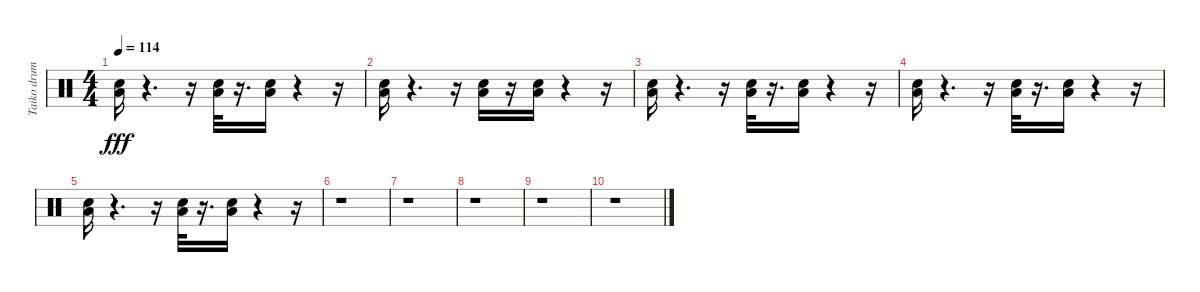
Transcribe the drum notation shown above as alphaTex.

\track ("Taiko drum" "Taiko drum") {instrument percussion}
\staff {score}
\articulation defaults
\ts (4 4)
\tempo 114
\clef neutral
\ks c
("Low Floor Tom (hit)" "Electric Snare (hit)").16{dy fff} r.4{d} r.16 ("Low Floor Tom (hit)" "Electric Snare (hit)").32 r.16{d} ("Low Floor Tom (hit)" "Electric Snare (hit)").16 r.4 r.16 |
("Low Floor Tom (hit)" "Electric Snare (hit)").16 r.4{d} r.16 ("Low Floor Tom (hit)" "Electric Snare (hit)").16 r.16 ("Electric Snare (hit)" "Low Floor Tom (hit)").16 r.4 r.16 |
("Low Floor Tom (hit)" "Electric Snare (hit)").16 r.4{d} r.16 ("Low Floor Tom (hit)" "Electric Snare (hit)").32 r.16{d} ("Low Floor Tom (hit)" "Electric Snare (hit)").16 r.4 r.16 |
("Low Floor Tom (hit)" "Electric Snare (hit)").16 r.4{d} r.16 ("Low Floor Tom (hit)" "Electric Snare (hit)").32 r.16{d} ("Low Floor Tom (hit)" "Electric Snare (hit)").16 r.4 r.16 |
("Electric Snare (hit)" "Low Floor Tom (hit)").16 r.4{d} r.16 ("Electric Snare (hit)" "Low Floor Tom (hit)").32 r.16{d} ("Electric Snare (hit)" "Low Floor Tom (hit)").16 r.4 r.16 |
r.1 |
r.1 |
r.1 |
r.1 |
r.1
